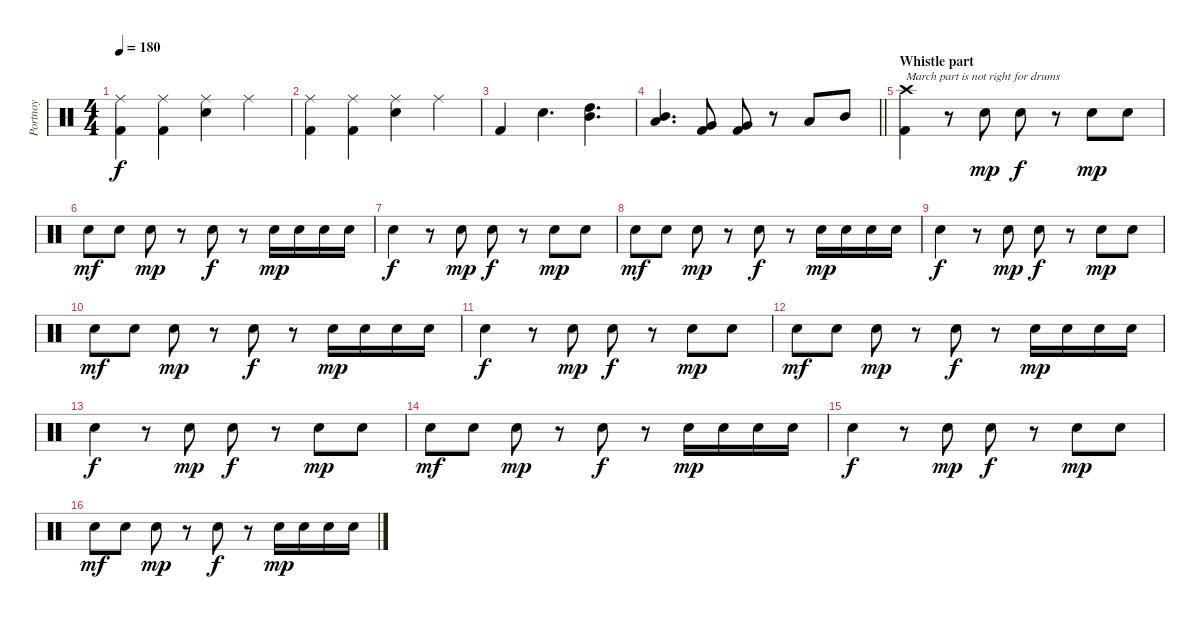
\track ("Portnoy" "Portnoy") {instrument percussion}
\staff {score}
\articulation defaults
\ts (4 4)
\tempo 180
\clef neutral
\ks c
("Ride (middle)" "Kick (hit) 2").4{dy f} ("Ride (middle)" "Kick (hit) 2").4 ("Ride (middle)" "Electric Snare (hit)").4 "Ride (middle)".4 |
("Ride (middle)" "Kick (hit) 2").4 ("Ride (middle)" "Kick (hit) 2").4 ("Ride (middle)" "Electric Snare (hit)").4 "Ride (middle)".4 |
"Kick (hit) 2".4 "Electric Snare (hit)".4{d} ("High Tom (hit)" "Mid Tom (hit)").4{d} |
\barLineRight lightlight
("Mid Tom (hit)" "Low Tom (hit)").4{d} ("Very Low Tom (hit)" "Kick (hit) 2").8 ("Very Low Tom (hit)" "Kick (hit) 2").8 r.8 "Low Tom (hit)".8 "Mid Tom (hit)".8 |
\section ("" "Whistle part")
("Crash high (hit)" "Kick (hit) 2").4{txt "March part is not right for drums"} r.8 "Electric Snare (hit)".8{dy mp} "Electric Snare (hit)".8{dy f} r.8 "Electric Snare (hit)".8{dy mp} "Electric Snare (hit)".8 |
"Electric Snare (hit)".8{dy mf} "Electric Snare (hit)".8 "Electric Snare (hit)".8{dy mp} r.8 "Electric Snare (hit)".8{dy f} r.8 "Electric Snare (hit)".16{dy mp} "Electric Snare (hit)".16 "Electric Snare (hit)".16 "Electric Snare (hit)".16 |
"Electric Snare (hit)".4{dy f} r.8 "Electric Snare (hit)".8{dy mp} "Electric Snare (hit)".8{dy f} r.8 "Electric Snare (hit)".8{dy mp} "Electric Snare (hit)".8 |
"Electric Snare (hit)".8{dy mf} "Electric Snare (hit)".8 "Electric Snare (hit)".8{dy mp} r.8 "Electric Snare (hit)".8{dy f} r.8 "Electric Snare (hit)".16{dy mp} "Electric Snare (hit)".16 "Electric Snare (hit)".16 "Electric Snare (hit)".16 |
"Electric Snare (hit)".4{dy f} r.8 "Electric Snare (hit)".8{dy mp} "Electric Snare (hit)".8{dy f} r.8 "Electric Snare (hit)".8{dy mp} "Electric Snare (hit)".8 |
"Electric Snare (hit)".8{dy mf} "Electric Snare (hit)".8 "Electric Snare (hit)".8{dy mp} r.8 "Electric Snare (hit)".8{dy f} r.8 "Electric Snare (hit)".16{dy mp} "Electric Snare (hit)".16 "Electric Snare (hit)".16 "Electric Snare (hit)".16 |
"Electric Snare (hit)".4{dy f} r.8 "Electric Snare (hit)".8{dy mp} "Electric Snare (hit)".8{dy f} r.8 "Electric Snare (hit)".8{dy mp} "Electric Snare (hit)".8 |
"Electric Snare (hit)".8{dy mf} "Electric Snare (hit)".8 "Electric Snare (hit)".8{dy mp} r.8 "Electric Snare (hit)".8{dy f} r.8 "Electric Snare (hit)".16{dy mp} "Electric Snare (hit)".16 "Electric Snare (hit)".16 "Electric Snare (hit)".16 |
"Electric Snare (hit)".4{dy f} r.8 "Electric Snare (hit)".8{dy mp} "Electric Snare (hit)".8{dy f} r.8 "Electric Snare (hit)".8{dy mp} "Electric Snare (hit)".8 |
"Electric Snare (hit)".8{dy mf} "Electric Snare (hit)".8 "Electric Snare (hit)".8{dy mp} r.8 "Electric Snare (hit)".8{dy f} r.8 "Electric Snare (hit)".16{dy mp} "Electric Snare (hit)".16 "Electric Snare (hit)".16 "Electric Snare (hit)".16 |
"Electric Snare (hit)".4{dy f} r.8 "Electric Snare (hit)".8{dy mp} "Electric Snare (hit)".8{dy f} r.8 "Electric Snare (hit)".8{dy mp} "Electric Snare (hit)".8 |
"Electric Snare (hit)".8{dy mf} "Electric Snare (hit)".8 "Electric Snare (hit)".8{dy mp} r.8 "Electric Snare (hit)".8{dy f} r.8 "Electric Snare (hit)".16{dy mp} "Electric Snare (hit)".16 "Electric Snare (hit)".16 "Electric Snare (hit)".16
